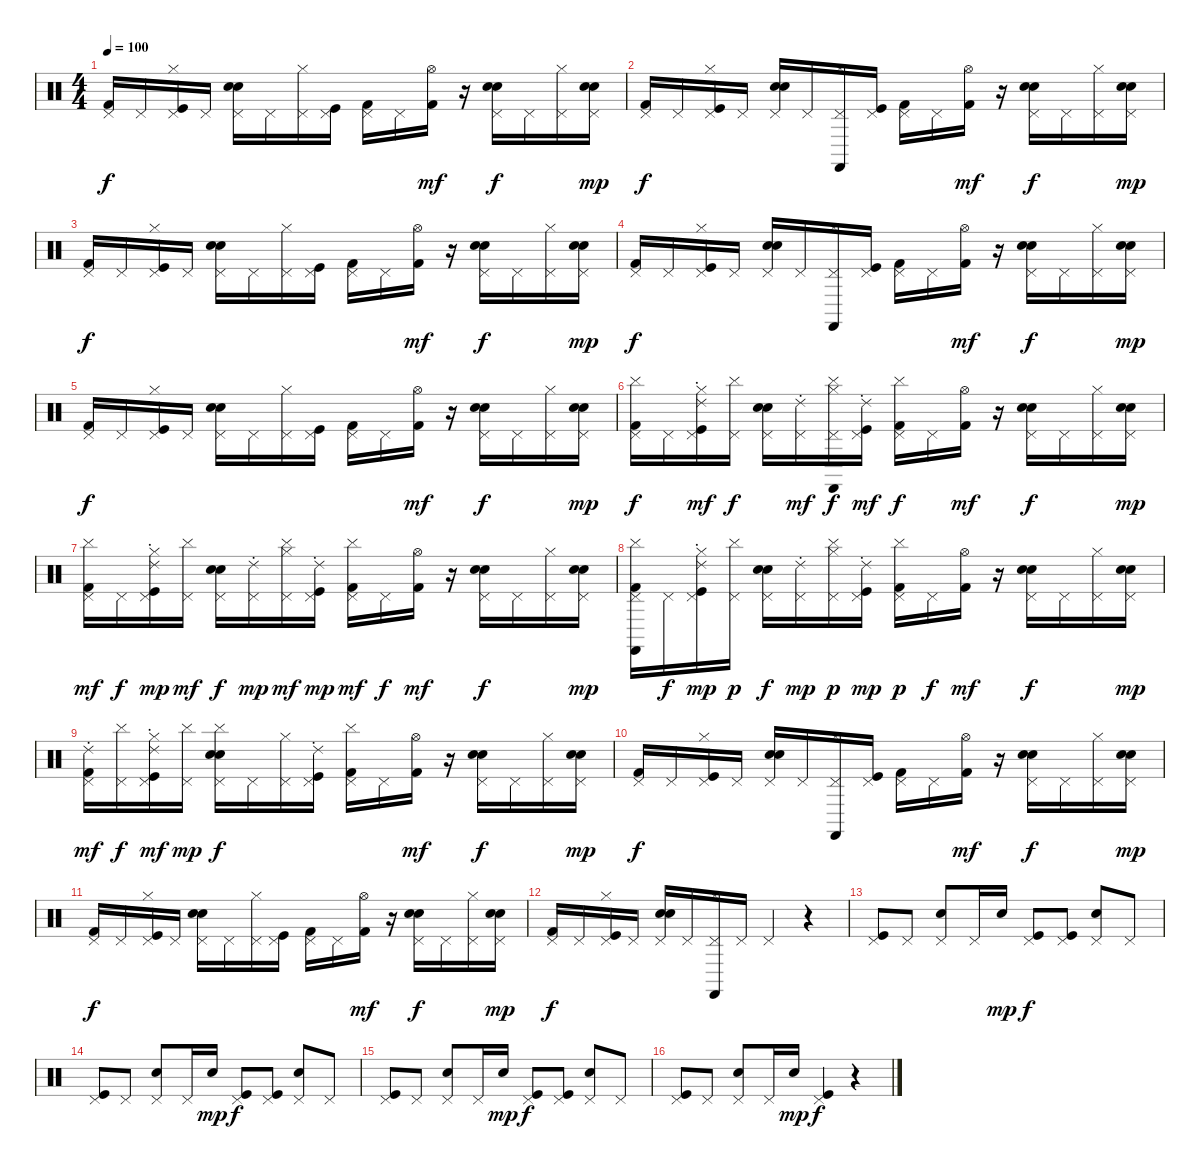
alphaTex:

\track "" {instrument percussion}
\staff {score}
\articulation defaults
\ts (4 4)
\tempo 100
\clef neutral
\ks c
("Pedal Hi-Hat (hit)" "Kick (hit) 2").16{dy f} "Pedal Hi-Hat (hit)".16 ("Hi-Hat (closed)" "Pedal Hi-Hat (hit)" "Kick (hit)").16 "Pedal Hi-Hat (hit)".16 ("Snare (hit) 2" "Electric Snare (hit)" "Pedal Hi-Hat (hit)").16 "Pedal Hi-Hat (hit)".16 ("Hi-Hat (closed)" "Pedal Hi-Hat (hit)").16 ("Pedal Hi-Hat (hit)" "Kick (hit)").16 ("Pedal Hi-Hat (hit)" "Kick (hit) 2").16 "Pedal Hi-Hat (hit)".16 ("Hi-Hat (open)" "Kick (hit) 2").16{dy mf} r.16 ("Snare (hit) 2" "Electric Snare (hit)" "Pedal Hi-Hat (hit)").16{dy f} "Pedal Hi-Hat (hit)".16 ("Hi-Hat (closed)" "Pedal Hi-Hat (hit)").16 ("Pedal Hi-Hat (hit)" "Electric Snare (hit)" "Snare (hit) 2").16{dy mp} |
("Pedal Hi-Hat (hit)" "Kick (hit) 2").16{dy f} "Pedal Hi-Hat (hit)".16 ("Hi-Hat (closed)" "Pedal Hi-Hat (hit)" "Kick (hit)").16 "Pedal Hi-Hat (hit)".16 ("Snare (hit) 2" "Electric Snare (hit)" "Pedal Hi-Hat (hit)").16 "Pedal Hi-Hat (hit)".16 ("Castanets (hit)" "Hi-Hat (closed)" "Pedal Hi-Hat (hit)").16 ("Pedal Hi-Hat (hit)" "Kick (hit)").16 ("Pedal Hi-Hat (hit)" "Kick (hit) 2").16 "Pedal Hi-Hat (hit)".16 ("Hi-Hat (open)" "Kick (hit) 2").16{dy mf} r.16 ("Snare (hit) 2" "Electric Snare (hit)" "Pedal Hi-Hat (hit)").16{dy f} "Pedal Hi-Hat (hit)".16 ("Hi-Hat (closed)" "Pedal Hi-Hat (hit)").16 ("Pedal Hi-Hat (hit)" "Snare (hit) 2" "Electric Snare (hit)").16{dy mp} |
("Pedal Hi-Hat (hit)" "Kick (hit) 2").16{dy f} "Pedal Hi-Hat (hit)".16 ("Hi-Hat (closed)" "Pedal Hi-Hat (hit)" "Kick (hit)").16 "Pedal Hi-Hat (hit)".16 ("Snare (hit) 2" "Electric Snare (hit)" "Pedal Hi-Hat (hit)").16 "Pedal Hi-Hat (hit)".16 ("Hi-Hat (closed)" "Pedal Hi-Hat (hit)").16 ("Pedal Hi-Hat (hit)" "Kick (hit)").16 ("Pedal Hi-Hat (hit)" "Kick (hit) 2").16 "Pedal Hi-Hat (hit)".16 ("Hi-Hat (open)" "Kick (hit) 2").16{dy mf} r.16 ("Snare (hit) 2" "Electric Snare (hit)" "Pedal Hi-Hat (hit)").16{dy f} "Pedal Hi-Hat (hit)".16 ("Hi-Hat (closed)" "Pedal Hi-Hat (hit)").16 ("Pedal Hi-Hat (hit)" "Snare (hit) 2" "Electric Snare (hit)").16{dy mp} |
("Pedal Hi-Hat (hit)" "Kick (hit) 2").16{dy f} "Pedal Hi-Hat (hit)".16 ("Hi-Hat (closed)" "Pedal Hi-Hat (hit)" "Kick (hit)").16 "Pedal Hi-Hat (hit)".16 ("Snare (hit) 2" "Electric Snare (hit)" "Pedal Hi-Hat (hit)").16 "Pedal Hi-Hat (hit)".16 ("Castanets (hit)" "Hi-Hat (closed)" "Pedal Hi-Hat (hit)").16 ("Pedal Hi-Hat (hit)" "Kick (hit)").16 ("Pedal Hi-Hat (hit)" "Kick (hit) 2").16 "Pedal Hi-Hat (hit)".16 ("Hi-Hat (open)" "Kick (hit) 2").16{dy mf} r.16 ("Snare (hit) 2" "Electric Snare (hit)" "Pedal Hi-Hat (hit)").16{dy f} "Pedal Hi-Hat (hit)".16 ("Hi-Hat (closed)" "Pedal Hi-Hat (hit)").16 ("Pedal Hi-Hat (hit)" "Snare (hit) 2" "Electric Snare (hit)").16{dy mp} |
("Pedal Hi-Hat (hit)" "Kick (hit) 2").16{dy f} "Pedal Hi-Hat (hit)".16 ("Hi-Hat (closed)" "Pedal Hi-Hat (hit)" "Kick (hit)").16 "Pedal Hi-Hat (hit)".16 ("Snare (hit) 2" "Electric Snare (hit)" "Pedal Hi-Hat (hit)").16 "Pedal Hi-Hat (hit)".16 ("Hi-Hat (closed)" "Pedal Hi-Hat (hit)").16 ("Pedal Hi-Hat (hit)" "Kick (hit)").16 ("Pedal Hi-Hat (hit)" "Kick (hit) 2").16 "Pedal Hi-Hat (hit)".16 ("Hi-Hat (open)" "Kick (hit) 2").16{dy mf} r.16 ("Snare (hit) 2" "Electric Snare (hit)" "Pedal Hi-Hat (hit)").16{dy f} "Pedal Hi-Hat (hit)".16 ("Hi-Hat (closed)" "Pedal Hi-Hat (hit)").16 ("Pedal Hi-Hat (hit)" "Electric Snare (hit)" "Snare (hit) 2").16{dy mp} |
("Cymbal (hit)" "Pedal Hi-Hat (hit)" "Kick (hit) 2").16{dy f} "Pedal Hi-Hat (hit)".16 ("Ride (choke) 2" "Hi-Hat (closed)" "Pedal Hi-Hat (hit)" "Kick (hit)").16{dy mf} ("Cymbal (hit)" "Pedal Hi-Hat (hit)").16{dy f} ("Snare (hit) 2" "Electric Snare (hit)" "Pedal Hi-Hat (hit)").16 ("Ride (choke) 2" "Pedal Hi-Hat (hit)").16{dy mf} ("Cymbal (hit)" "Castanets (hit)" "Hi-Hat (closed)" "Pedal Hi-Hat (hit)").16{dy f} ("Ride (choke) 2" "Pedal Hi-Hat (hit)" "Kick (hit)").16{dy mf} ("Cymbal (hit)" "Pedal Hi-Hat (hit)" "Kick (hit) 2").16{dy f} "Pedal Hi-Hat (hit)".16 ("Hi-Hat (open)" "Kick (hit) 2").16{dy mf} r.16 ("Snare (hit) 2" "Electric Snare (hit)" "Pedal Hi-Hat (hit)").16{dy f} "Pedal Hi-Hat (hit)".16 ("Hi-Hat (closed)" "Pedal Hi-Hat (hit)").16 ("Pedal Hi-Hat (hit)" "Electric Snare (hit)" "Snare (hit) 2").16{dy mp} |
("Cymbal (hit)" "Pedal Hi-Hat (hit)" "Kick (hit) 2").16{dy mf} "Pedal Hi-Hat (hit)".16{dy f} ("Ride (choke) 2" "Hi-Hat (closed)" "Pedal Hi-Hat (hit)" "Kick (hit)").16{dy mp} ("Cymbal (hit)" "Pedal Hi-Hat (hit)").16{dy mf} ("Snare (hit) 2" "Electric Snare (hit)" "Pedal Hi-Hat (hit)").16{dy f} ("Ride (choke) 2" "Pedal Hi-Hat (hit)").16{dy mp} ("Cymbal (hit)" "Hi-Hat (closed)" "Pedal Hi-Hat (hit)").16{dy mf} ("Ride (choke) 2" "Pedal Hi-Hat (hit)" "Kick (hit)").16{dy mp} ("Cymbal (hit)" "Pedal Hi-Hat (hit)" "Kick (hit) 2").16{dy mf} "Pedal Hi-Hat (hit)".16{dy f} ("Hi-Hat (open)" "Kick (hit) 2").16{dy mf} r.16 ("Snare (hit) 2" "Electric Snare (hit)" "Pedal Hi-Hat (hit)").16{dy f} "Pedal Hi-Hat (hit)".16 ("Hi-Hat (closed)" "Pedal Hi-Hat (hit)").16 ("Pedal Hi-Hat (hit)" "Electric Snare (hit)" "Snare (hit) 2").16{dy mp} |
("Cymbal (hit)" "Castanets (hit)" "Pedal Hi-Hat (hit)" "Kick (hit) 2").16 "Pedal Hi-Hat (hit)".16{dy f} ("Ride (choke) 2" "Hi-Hat (closed)" "Pedal Hi-Hat (hit)" "Kick (hit)").16{dy mp} ("Cymbal (hit)" "Pedal Hi-Hat (hit)").16{dy p} ("Snare (hit) 2" "Electric Snare (hit)" "Pedal Hi-Hat (hit)").16{dy f} ("Ride (choke) 2" "Pedal Hi-Hat (hit)").16{dy mp} ("Cymbal (hit)" "Hi-Hat (closed)" "Pedal Hi-Hat (hit)").16{dy p} ("Ride (choke) 2" "Pedal Hi-Hat (hit)" "Kick (hit)").16{dy mp} ("Cymbal (hit)" "Pedal Hi-Hat (hit)" "Kick (hit) 2").16{dy p} "Pedal Hi-Hat (hit)".16{dy f} ("Hi-Hat (open)" "Kick (hit) 2").16{dy mf} r.16 ("Snare (hit) 2" "Electric Snare (hit)" "Pedal Hi-Hat (hit)").16{dy f} "Pedal Hi-Hat (hit)".16 ("Hi-Hat (closed)" "Pedal Hi-Hat (hit)").16 ("Pedal Hi-Hat (hit)" "Electric Snare (hit)" "Snare (hit) 2").16{dy mp} |
("Ride (choke) 2" "Pedal Hi-Hat (hit)" "Kick (hit) 2").16{dy mf} ("Cymbal (hit)" "Pedal Hi-Hat (hit)").16{dy f} ("Ride (choke) 2" "Hi-Hat (closed)" "Pedal Hi-Hat (hit)" "Kick (hit)").16{dy mf} ("Cymbal (hit)" "Pedal Hi-Hat (hit)").16{dy mp} ("Cymbal (hit)" "Snare (hit) 2" "Electric Snare (hit)" "Pedal Hi-Hat (hit)").16{dy f} "Pedal Hi-Hat (hit)".16 ("Hi-Hat (closed)" "Pedal Hi-Hat (hit)").16 ("Ride (choke) 2" "Pedal Hi-Hat (hit)" "Kick (hit)").16 ("Cymbal (hit)" "Pedal Hi-Hat (hit)" "Kick (hit) 2").16 "Pedal Hi-Hat (hit)".16 ("Hi-Hat (open)" "Kick (hit) 2").16{dy mf} r.16 ("Snare (hit) 2" "Electric Snare (hit)" "Pedal Hi-Hat (hit)").16{dy f} "Pedal Hi-Hat (hit)".16 ("Hi-Hat (closed)" "Pedal Hi-Hat (hit)").16 ("Pedal Hi-Hat (hit)" "Electric Snare (hit)" "Snare (hit) 2").16{dy mp} |
("Pedal Hi-Hat (hit)" "Kick (hit) 2").16{dy f} "Pedal Hi-Hat (hit)".16 ("Hi-Hat (closed)" "Pedal Hi-Hat (hit)" "Kick (hit)").16 "Pedal Hi-Hat (hit)".16 ("Snare (hit) 2" "Electric Snare (hit)" "Pedal Hi-Hat (hit)").16 "Pedal Hi-Hat (hit)".16 ("Castanets (hit)" "Hi-Hat (closed)" "Pedal Hi-Hat (hit)").16 ("Pedal Hi-Hat (hit)" "Kick (hit)").16 ("Pedal Hi-Hat (hit)" "Kick (hit) 2").16 "Pedal Hi-Hat (hit)".16 ("Hi-Hat (open)" "Kick (hit) 2").16{dy mf} r.16 ("Snare (hit) 2" "Electric Snare (hit)" "Pedal Hi-Hat (hit)").16{dy f} "Pedal Hi-Hat (hit)".16 ("Hi-Hat (closed)" "Pedal Hi-Hat (hit)").16 ("Pedal Hi-Hat (hit)" "Electric Snare (hit)" "Snare (hit) 2").16{dy mp} |
("Pedal Hi-Hat (hit)" "Kick (hit) 2").16{dy f} "Pedal Hi-Hat (hit)".16 ("Hi-Hat (closed)" "Pedal Hi-Hat (hit)" "Kick (hit)").16 "Pedal Hi-Hat (hit)".16 ("Snare (hit) 2" "Electric Snare (hit)" "Pedal Hi-Hat (hit)").16 "Pedal Hi-Hat (hit)".16 ("Hi-Hat (closed)" "Pedal Hi-Hat (hit)").16 ("Pedal Hi-Hat (hit)" "Kick (hit)").16 ("Pedal Hi-Hat (hit)" "Kick (hit) 2").16 "Pedal Hi-Hat (hit)".16 ("Hi-Hat (open)" "Kick (hit) 2").16{dy mf} r.16 ("Snare (hit) 2" "Electric Snare (hit)" "Pedal Hi-Hat (hit)").16{dy f} "Pedal Hi-Hat (hit)".16 ("Hi-Hat (closed)" "Pedal Hi-Hat (hit)").16 ("Pedal Hi-Hat (hit)" "Electric Snare (hit)" "Snare (hit) 2").16{dy mp} |
("Pedal Hi-Hat (hit)" "Kick (hit) 2").16{dy f} "Pedal Hi-Hat (hit)".16 ("Hi-Hat (closed)" "Pedal Hi-Hat (hit)" "Kick (hit)").16 "Pedal Hi-Hat (hit)".16 ("Snare (hit) 2" "Electric Snare (hit)" "Pedal Hi-Hat (hit)").16 "Pedal Hi-Hat (hit)".16 ("Castanets (hit)" "Hi-Hat (closed)" "Pedal Hi-Hat (hit)").16 "Pedal Hi-Hat (hit)".16 "Pedal Hi-Hat (hit)".4 r.4 |
("Pedal Hi-Hat (hit)" "Kick (hit)").8 "Pedal Hi-Hat (hit)".8 ("Electric Snare (hit)" "Pedal Hi-Hat (hit)").8 "Pedal Hi-Hat (hit)".16 "Electric Snare (hit)".16{dy mp} ("Pedal Hi-Hat (hit)" "Kick (hit)").8{dy f} ("Pedal Hi-Hat (hit)" "Kick (hit)").8 ("Electric Snare (hit)" "Pedal Hi-Hat (hit)").8 "Pedal Hi-Hat (hit)".8 |
("Pedal Hi-Hat (hit)" "Kick (hit)").8 "Pedal Hi-Hat (hit)".8 ("Electric Snare (hit)" "Pedal Hi-Hat (hit)").8 "Pedal Hi-Hat (hit)".16 "Electric Snare (hit)".16{dy mp} ("Pedal Hi-Hat (hit)" "Kick (hit)").8{dy f} ("Pedal Hi-Hat (hit)" "Kick (hit)").8 ("Electric Snare (hit)" "Pedal Hi-Hat (hit)").8 "Pedal Hi-Hat (hit)".8 |
("Pedal Hi-Hat (hit)" "Kick (hit)").8 "Pedal Hi-Hat (hit)".8 ("Electric Snare (hit)" "Pedal Hi-Hat (hit)").8 "Pedal Hi-Hat (hit)".16 "Electric Snare (hit)".16{dy mp} ("Pedal Hi-Hat (hit)" "Kick (hit)").8{dy f} ("Pedal Hi-Hat (hit)" "Kick (hit)").8 ("Electric Snare (hit)" "Pedal Hi-Hat (hit)").8 "Pedal Hi-Hat (hit)".8 |
("Pedal Hi-Hat (hit)" "Kick (hit)").8 "Pedal Hi-Hat (hit)".8 ("Electric Snare (hit)" "Pedal Hi-Hat (hit)").8 "Pedal Hi-Hat (hit)".16 "Electric Snare (hit)".16{dy mp} ("Pedal Hi-Hat (hit)" "Kick (hit)").4{dy f} r.4
